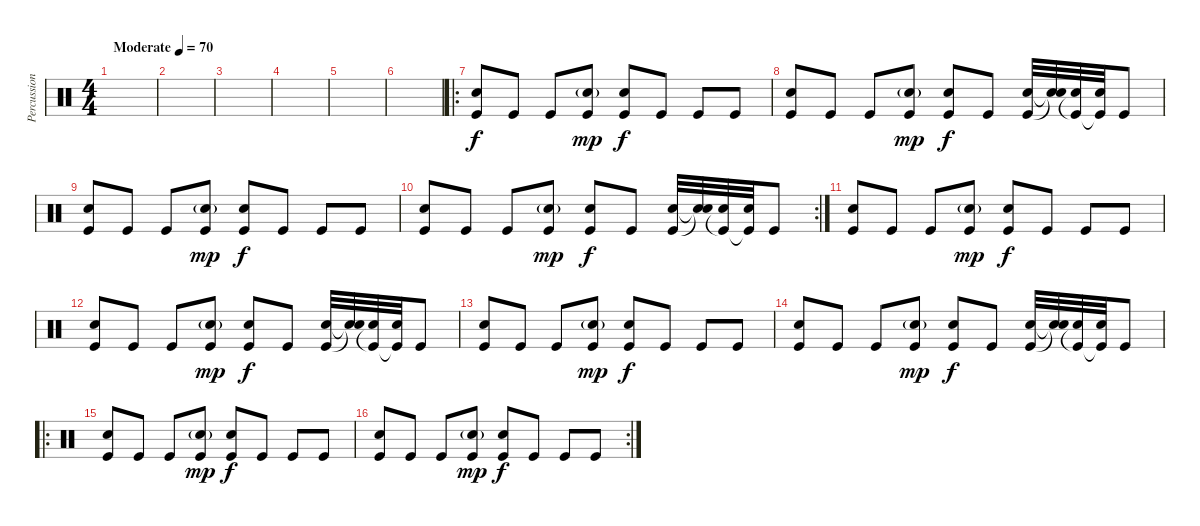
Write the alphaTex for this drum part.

\track ("Percussions" "Percussion") {instrument percussion}
\staff {score}
\articulation defaults
\ts (4 4)
\tempo (70 "Moderate")
\clef neutral
\ks c
|
|
|
|
|
|
\ro
("Kick (hit)" "Snare (hit) 2").8 "Kick (hit)".8 "Kick (hit)".8 ("Kick (hit)" "Snare (hit) 2"{g}).8{dy mp} ("Kick (hit)" "Snare (hit) 2").8{dy f} "Kick (hit)".8 "Kick (hit)".8 "Kick (hit)".8 |
("Kick (hit)" "Snare (hit) 2").8 "Kick (hit)".8 "Kick (hit)".8 ("Kick (hit)" "Snare (hit) 2"{g}).8{dy mp} ("Kick (hit)" "Snare (hit) 2").8{dy f} "Kick (hit)".8 ("Kick (hit)" "Snare (hit) 2").32 ("Snare (hit)"{t} "Snare (hit) 2"{t}).32 ("Kick (hit)"{t} "Snare (hit) 2").32 ("Kick (hit)"{t} "Snare (hit) 2").32 "Kick (hit)".8 |
("Kick (hit)" "Snare (hit) 2").8 "Kick (hit)".8 "Kick (hit)".8 ("Kick (hit)" "Snare (hit) 2"{g}).8{dy mp} ("Kick (hit)" "Snare (hit) 2").8{dy f} "Kick (hit)".8 "Kick (hit)".8 "Kick (hit)".8 |
\rc 2
("Kick (hit)" "Snare (hit) 2").8 "Kick (hit)".8 "Kick (hit)".8 ("Kick (hit)" "Snare (hit) 2"{g}).8{dy mp} ("Kick (hit)" "Snare (hit) 2").8{dy f} "Kick (hit)".8 ("Kick (hit)" "Snare (hit) 2").32 ("Snare (hit)"{t} "Snare (hit) 2"{t}).32 ("Kick (hit)"{t} "Snare (hit) 2").32 ("Kick (hit)"{t} "Snare (hit) 2").32 "Kick (hit)".8 |
("Kick (hit)" "Snare (hit) 2").8 "Kick (hit)".8 "Kick (hit)".8 ("Kick (hit)" "Snare (hit) 2"{g}).8{dy mp} ("Kick (hit)" "Snare (hit) 2").8{dy f} "Kick (hit)".8 "Kick (hit)".8 "Kick (hit)".8 |
("Kick (hit)" "Snare (hit) 2").8 "Kick (hit)".8 "Kick (hit)".8 ("Kick (hit)" "Snare (hit) 2"{g}).8{dy mp} ("Kick (hit)" "Snare (hit) 2").8{dy f} "Kick (hit)".8 ("Kick (hit)" "Snare (hit) 2").32 ("Snare (hit)"{t} "Snare (hit) 2"{t}).32 ("Kick (hit)"{t} "Snare (hit) 2").32 ("Kick (hit)"{t} "Snare (hit) 2").32 "Kick (hit)".8 |
("Kick (hit)" "Snare (hit) 2").8 "Kick (hit)".8 "Kick (hit)".8 ("Kick (hit)" "Snare (hit) 2"{g}).8{dy mp} ("Kick (hit)" "Snare (hit) 2").8{dy f} "Kick (hit)".8 "Kick (hit)".8 "Kick (hit)".8 |
("Kick (hit)" "Snare (hit) 2").8 "Kick (hit)".8 "Kick (hit)".8 ("Kick (hit)" "Snare (hit) 2"{g}).8{dy mp} ("Kick (hit)" "Snare (hit) 2").8{dy f} "Kick (hit)".8 ("Kick (hit)" "Snare (hit) 2").32 ("Snare (hit)"{t} "Snare (hit) 2"{t}).32 ("Kick (hit)"{t} "Snare (hit) 2").32 ("Kick (hit)"{t} "Snare (hit) 2").32 "Kick (hit)".8 |
\ro
("Kick (hit)" "Snare (hit) 2").8 "Kick (hit)".8 "Kick (hit)".8 ("Kick (hit)" "Snare (hit) 2"{g}).8{dy mp} ("Kick (hit)" "Snare (hit) 2").8{dy f} "Kick (hit)".8 "Kick (hit)".8 "Kick (hit)".8 |
\rc 2
("Kick (hit)" "Snare (hit) 2").8 "Kick (hit)".8 "Kick (hit)".8 ("Kick (hit)" "Snare (hit) 2"{g}).8{dy mp} ("Kick (hit)" "Snare (hit) 2").8{dy f} "Kick (hit)".8 "Kick (hit)".8 "Kick (hit)".8
